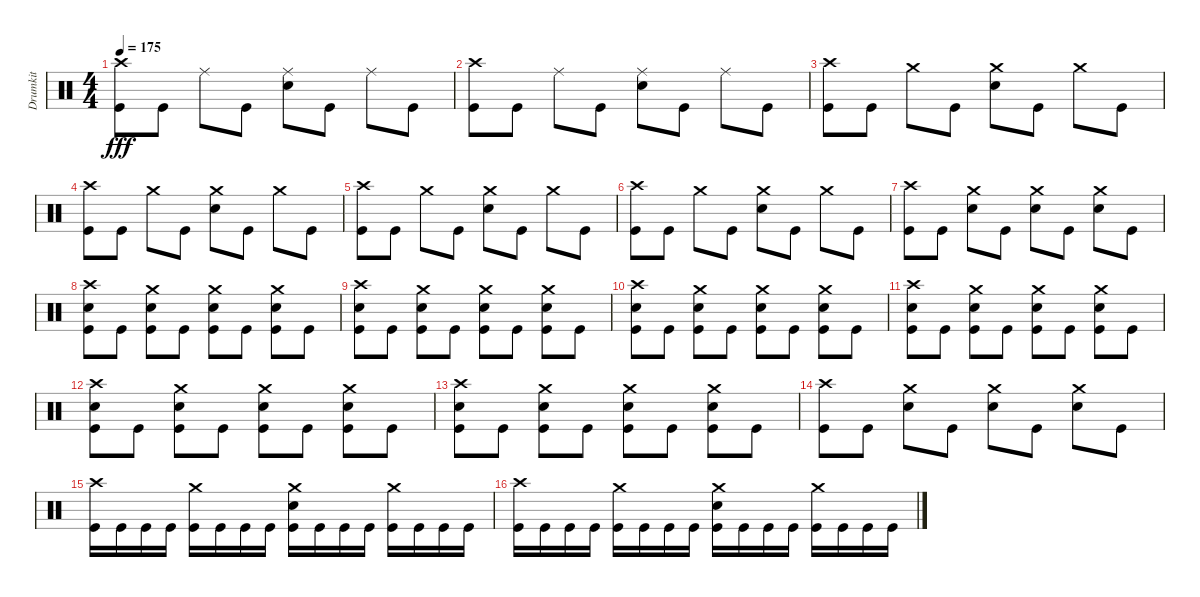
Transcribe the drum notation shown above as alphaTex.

\track ("Drumkit" "Drumkit") {instrument percussion}
\staff {score}
\articulation defaults
\ts (4 4)
\tempo 175
\clef neutral
\ks c
("Crash high (hit)" "Kick (hit)").8{dy fff} "Kick (hit)".8 "Ride (middle)".8 "Kick (hit)".8 ("Ride (middle)" "Snare (hit) 2").8 "Kick (hit)".8 "Ride (middle)".8 "Kick (hit)".8 |
("Crash high (hit)" "Kick (hit)").8 "Kick (hit)".8 "Ride (middle)".8 "Kick (hit)".8 ("Ride (middle)" "Snare (hit) 2").8 "Kick (hit)".8 "Ride (middle)".8 "Kick (hit)".8 |
("Crash high (hit)" "Kick (hit)").8 "Kick (hit)".8 "Crash medium (hit)".8 "Kick (hit)".8 ("Crash medium (hit)" "Snare (hit) 2").8 "Kick (hit)".8 "Crash medium (hit)".8 "Kick (hit)".8 |
("Crash high (hit)" "Kick (hit)").8 "Kick (hit)".8 "Crash medium (hit)".8 "Kick (hit)".8 ("Crash medium (hit)" "Snare (hit) 2").8 "Kick (hit)".8 "Crash medium (hit)".8 "Kick (hit)".8 |
("Crash high (hit)" "Kick (hit)").8 "Kick (hit)".8 "Crash medium (hit)".8 "Kick (hit)".8 ("Crash medium (hit)" "Snare (hit) 2").8 "Kick (hit)".8 "Crash medium (hit)".8 "Kick (hit)".8 |
("Crash high (hit)" "Kick (hit)").8 "Kick (hit)".8 "Crash medium (hit)".8 "Kick (hit)".8 ("Crash medium (hit)" "Snare (hit) 2").8 "Kick (hit)".8 "Crash medium (hit)".8 "Kick (hit)".8 |
("Crash high (hit)" "Kick (hit)").8 "Kick (hit)".8 ("Crash medium (hit)" "Snare (hit) 2").8 "Kick (hit)".8 ("Crash medium (hit)" "Snare (hit) 2").8 "Kick (hit)".8 ("Crash medium (hit)" "Snare (hit) 2").8 "Kick (hit)".8 |
("Crash high (hit)" "Snare (hit) 2" "Kick (hit)").8 "Kick (hit)".8 ("Crash medium (hit)" "Snare (hit) 2" "Kick (hit)").8 "Kick (hit)".8 ("Crash medium (hit)" "Snare (hit) 2" "Kick (hit)").8 "Kick (hit)".8 ("Crash medium (hit)" "Snare (hit) 2" "Kick (hit)").8 "Kick (hit)".8 |
("Crash high (hit)" "Snare (hit) 2" "Kick (hit)").8 "Kick (hit)".8 ("Crash medium (hit)" "Snare (hit) 2" "Kick (hit)").8 "Kick (hit)".8 ("Crash medium (hit)" "Snare (hit) 2" "Kick (hit)").8 "Kick (hit)".8 ("Crash medium (hit)" "Snare (hit) 2" "Kick (hit)").8 "Kick (hit)".8 |
("Crash high (hit)" "Snare (hit) 2" "Kick (hit)").8 "Kick (hit)".8 ("Crash medium (hit)" "Snare (hit) 2" "Kick (hit)").8 "Kick (hit)".8 ("Crash medium (hit)" "Snare (hit) 2" "Kick (hit)").8 "Kick (hit)".8 ("Crash medium (hit)" "Snare (hit) 2" "Kick (hit)").8 "Kick (hit)".8 |
("Crash high (hit)" "Snare (hit) 2" "Kick (hit)").8 "Kick (hit)".8 ("Crash medium (hit)" "Snare (hit) 2" "Kick (hit)").8 "Kick (hit)".8 ("Crash medium (hit)" "Snare (hit) 2" "Kick (hit)").8 "Kick (hit)".8 ("Crash medium (hit)" "Snare (hit) 2" "Kick (hit)").8 "Kick (hit)".8 |
("Crash high (hit)" "Snare (hit) 2" "Kick (hit)").8 "Kick (hit)".8 ("Crash medium (hit)" "Snare (hit) 2" "Kick (hit)").8 "Kick (hit)".8 ("Crash medium (hit)" "Snare (hit) 2" "Kick (hit)").8 "Kick (hit)".8 ("Crash medium (hit)" "Snare (hit) 2" "Kick (hit)").8 "Kick (hit)".8 |
("Crash high (hit)" "Snare (hit) 2" "Kick (hit)").8 "Kick (hit)".8 ("Crash medium (hit)" "Snare (hit) 2" "Kick (hit)").8 "Kick (hit)".8 ("Crash medium (hit)" "Snare (hit) 2" "Kick (hit)").8 "Kick (hit)".8 ("Crash medium (hit)" "Snare (hit) 2" "Kick (hit)").8 "Kick (hit)".8 |
("Crash high (hit)" "Kick (hit)").8 "Kick (hit)".8 ("Crash medium (hit)" "Snare (hit) 2").8 "Kick (hit)".8 ("Crash medium (hit)" "Snare (hit) 2").8 "Kick (hit)".8 ("Crash medium (hit)" "Snare (hit) 2").8 "Kick (hit)".8 |
("Crash high (hit)" "Kick (hit)").16 "Kick (hit)".16 "Kick (hit)".16 "Kick (hit)".16 ("Crash medium (hit)" "Kick (hit)").16 "Kick (hit)".16 "Kick (hit)".16 "Kick (hit)".16 ("Crash medium (hit)" "Snare (hit) 2" "Kick (hit)").16 "Kick (hit)".16 "Kick (hit)".16 "Kick (hit)".16 ("Crash medium (hit)" "Kick (hit)").16 "Kick (hit)".16 "Kick (hit)".16 "Kick (hit)".16 |
("Crash high (hit)" "Kick (hit)").16 "Kick (hit)".16 "Kick (hit)".16 "Kick (hit)".16 ("Crash medium (hit)" "Kick (hit)").16 "Kick (hit)".16 "Kick (hit)".16 "Kick (hit)".16 ("Crash medium (hit)" "Snare (hit) 2" "Kick (hit)").16 "Kick (hit)".16 "Kick (hit)".16 "Kick (hit)".16 ("Crash medium (hit)" "Kick (hit)").16 "Kick (hit)".16 "Kick (hit)".16 "Kick (hit)".16
